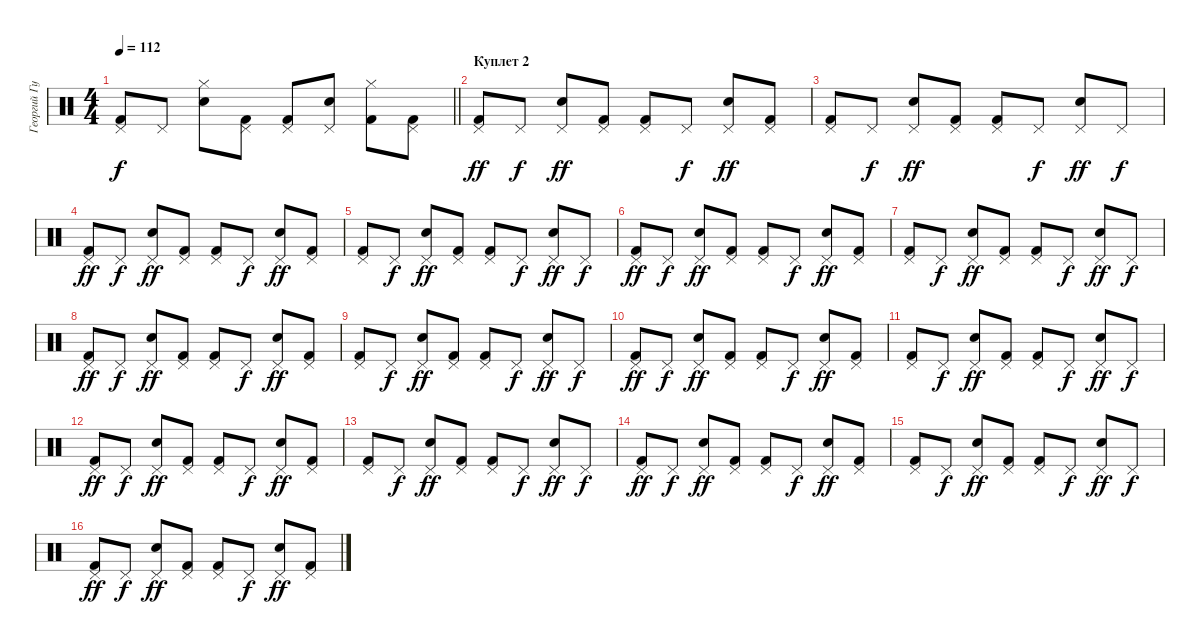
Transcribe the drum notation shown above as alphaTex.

\track ("Георгий Гурьянов" "Георгий Гу") {instrument percussion}
\staff {score}
\articulation defaults
\ts (4 4)
\tempo 112
\clef neutral
\barLineRight lightlight
\ks c
("Pedal Hi-Hat (hit)" "Kick (hit) 2").8{dy f} "Pedal Hi-Hat (hit)".8 ("Hi-Hat (closed)" "Electric Snare (hit)").8 ("Pedal Hi-Hat (hit)" "Kick (hit) 2").8 ("Pedal Hi-Hat (hit)" "Kick (hit) 2").8 ("Pedal Hi-Hat (hit)" "Electric Snare (hit)").8 ("Hi-Hat (closed)" "Kick (hit) 2").8 ("Pedal Hi-Hat (hit)" "Kick (hit) 2").8 |
\section ("" "Куплет 2")
("Pedal Hi-Hat (hit)" "Kick (hit) 2").8{dy ff} "Pedal Hi-Hat (hit)".8{dy f} ("Pedal Hi-Hat (hit)" "Electric Snare (hit)").8{dy ff} ("Pedal Hi-Hat (hit)" "Kick (hit) 2").8 ("Pedal Hi-Hat (hit)" "Kick (hit) 2").8 "Pedal Hi-Hat (hit)".8{dy f} ("Pedal Hi-Hat (hit)" "Electric Snare (hit)").8{dy ff} ("Pedal Hi-Hat (hit)" "Kick (hit) 2").8 |
("Pedal Hi-Hat (hit)" "Kick (hit) 2").8 "Pedal Hi-Hat (hit)".8{dy f} ("Pedal Hi-Hat (hit)" "Electric Snare (hit)").8{dy ff} ("Pedal Hi-Hat (hit)" "Kick (hit) 2").8 ("Pedal Hi-Hat (hit)" "Kick (hit) 2").8 "Pedal Hi-Hat (hit)".8{dy f} ("Pedal Hi-Hat (hit)" "Electric Snare (hit)").8{dy ff} "Pedal Hi-Hat (hit)".8{dy f} |
("Pedal Hi-Hat (hit)" "Kick (hit) 2").8{dy ff} "Pedal Hi-Hat (hit)".8{dy f} ("Pedal Hi-Hat (hit)" "Electric Snare (hit)").8{dy ff} ("Pedal Hi-Hat (hit)" "Kick (hit) 2").8 ("Pedal Hi-Hat (hit)" "Kick (hit) 2").8 "Pedal Hi-Hat (hit)".8{dy f} ("Pedal Hi-Hat (hit)" "Electric Snare (hit)").8{dy ff} ("Pedal Hi-Hat (hit)" "Kick (hit) 2").8 |
("Pedal Hi-Hat (hit)" "Kick (hit) 2").8 "Pedal Hi-Hat (hit)".8{dy f} ("Pedal Hi-Hat (hit)" "Electric Snare (hit)").8{dy ff} ("Pedal Hi-Hat (hit)" "Kick (hit) 2").8 ("Pedal Hi-Hat (hit)" "Kick (hit) 2").8 "Pedal Hi-Hat (hit)".8{dy f} ("Pedal Hi-Hat (hit)" "Electric Snare (hit)").8{dy ff} "Pedal Hi-Hat (hit)".8{dy f} |
("Pedal Hi-Hat (hit)" "Kick (hit) 2").8{dy ff} "Pedal Hi-Hat (hit)".8{dy f} ("Pedal Hi-Hat (hit)" "Electric Snare (hit)").8{dy ff} ("Pedal Hi-Hat (hit)" "Kick (hit) 2").8 ("Pedal Hi-Hat (hit)" "Kick (hit) 2").8 "Pedal Hi-Hat (hit)".8{dy f} ("Pedal Hi-Hat (hit)" "Electric Snare (hit)").8{dy ff} ("Pedal Hi-Hat (hit)" "Kick (hit) 2").8 |
("Pedal Hi-Hat (hit)" "Kick (hit) 2").8 "Pedal Hi-Hat (hit)".8{dy f} ("Pedal Hi-Hat (hit)" "Electric Snare (hit)").8{dy ff} ("Pedal Hi-Hat (hit)" "Kick (hit) 2").8 ("Pedal Hi-Hat (hit)" "Kick (hit) 2").8 "Pedal Hi-Hat (hit)".8{dy f} ("Pedal Hi-Hat (hit)" "Electric Snare (hit)").8{dy ff} "Pedal Hi-Hat (hit)".8{dy f} |
("Pedal Hi-Hat (hit)" "Kick (hit) 2").8{dy ff} "Pedal Hi-Hat (hit)".8{dy f} ("Pedal Hi-Hat (hit)" "Electric Snare (hit)").8{dy ff} ("Pedal Hi-Hat (hit)" "Kick (hit) 2").8 ("Pedal Hi-Hat (hit)" "Kick (hit) 2").8 "Pedal Hi-Hat (hit)".8{dy f} ("Pedal Hi-Hat (hit)" "Electric Snare (hit)").8{dy ff} ("Pedal Hi-Hat (hit)" "Kick (hit) 2").8 |
("Pedal Hi-Hat (hit)" "Kick (hit) 2").8 "Pedal Hi-Hat (hit)".8{dy f} ("Pedal Hi-Hat (hit)" "Electric Snare (hit)").8{dy ff} ("Pedal Hi-Hat (hit)" "Kick (hit) 2").8 ("Pedal Hi-Hat (hit)" "Kick (hit) 2").8 "Pedal Hi-Hat (hit)".8{dy f} ("Pedal Hi-Hat (hit)" "Electric Snare (hit)").8{dy ff} "Pedal Hi-Hat (hit)".8{dy f} |
("Pedal Hi-Hat (hit)" "Kick (hit) 2").8{dy ff} "Pedal Hi-Hat (hit)".8{dy f} ("Pedal Hi-Hat (hit)" "Electric Snare (hit)").8{dy ff} ("Pedal Hi-Hat (hit)" "Kick (hit) 2").8 ("Pedal Hi-Hat (hit)" "Kick (hit) 2").8 "Pedal Hi-Hat (hit)".8{dy f} ("Pedal Hi-Hat (hit)" "Electric Snare (hit)").8{dy ff} ("Pedal Hi-Hat (hit)" "Kick (hit) 2").8 |
("Pedal Hi-Hat (hit)" "Kick (hit) 2").8 "Pedal Hi-Hat (hit)".8{dy f} ("Pedal Hi-Hat (hit)" "Electric Snare (hit)").8{dy ff} ("Pedal Hi-Hat (hit)" "Kick (hit) 2").8 ("Pedal Hi-Hat (hit)" "Kick (hit) 2").8 "Pedal Hi-Hat (hit)".8{dy f} ("Pedal Hi-Hat (hit)" "Electric Snare (hit)").8{dy ff} "Pedal Hi-Hat (hit)".8{dy f} |
("Pedal Hi-Hat (hit)" "Kick (hit) 2").8{dy ff} "Pedal Hi-Hat (hit)".8{dy f} ("Pedal Hi-Hat (hit)" "Electric Snare (hit)").8{dy ff} ("Pedal Hi-Hat (hit)" "Kick (hit) 2").8 ("Pedal Hi-Hat (hit)" "Kick (hit) 2").8 "Pedal Hi-Hat (hit)".8{dy f} ("Pedal Hi-Hat (hit)" "Electric Snare (hit)").8{dy ff} ("Pedal Hi-Hat (hit)" "Kick (hit) 2").8 |
("Pedal Hi-Hat (hit)" "Kick (hit) 2").8 "Pedal Hi-Hat (hit)".8{dy f} ("Pedal Hi-Hat (hit)" "Electric Snare (hit)").8{dy ff} ("Pedal Hi-Hat (hit)" "Kick (hit) 2").8 ("Pedal Hi-Hat (hit)" "Kick (hit) 2").8 "Pedal Hi-Hat (hit)".8{dy f} ("Pedal Hi-Hat (hit)" "Electric Snare (hit)").8{dy ff} "Pedal Hi-Hat (hit)".8{dy f} |
("Pedal Hi-Hat (hit)" "Kick (hit) 2").8{dy ff} "Pedal Hi-Hat (hit)".8{dy f} ("Pedal Hi-Hat (hit)" "Electric Snare (hit)").8{dy ff} ("Pedal Hi-Hat (hit)" "Kick (hit) 2").8 ("Pedal Hi-Hat (hit)" "Kick (hit) 2").8 "Pedal Hi-Hat (hit)".8{dy f} ("Pedal Hi-Hat (hit)" "Electric Snare (hit)").8{dy ff} ("Pedal Hi-Hat (hit)" "Kick (hit) 2").8 |
("Pedal Hi-Hat (hit)" "Kick (hit) 2").8 "Pedal Hi-Hat (hit)".8{dy f} ("Pedal Hi-Hat (hit)" "Electric Snare (hit)").8{dy ff} ("Pedal Hi-Hat (hit)" "Kick (hit) 2").8 ("Pedal Hi-Hat (hit)" "Kick (hit) 2").8 "Pedal Hi-Hat (hit)".8{dy f} ("Pedal Hi-Hat (hit)" "Electric Snare (hit)").8{dy ff} "Pedal Hi-Hat (hit)".8{dy f} |
("Pedal Hi-Hat (hit)" "Kick (hit) 2").8{dy ff} "Pedal Hi-Hat (hit)".8{dy f} ("Pedal Hi-Hat (hit)" "Electric Snare (hit)").8{dy ff} ("Pedal Hi-Hat (hit)" "Kick (hit) 2").8 ("Pedal Hi-Hat (hit)" "Kick (hit) 2").8 "Pedal Hi-Hat (hit)".8{dy f} ("Pedal Hi-Hat (hit)" "Electric Snare (hit)").8{dy ff} ("Pedal Hi-Hat (hit)" "Kick (hit) 2").8
